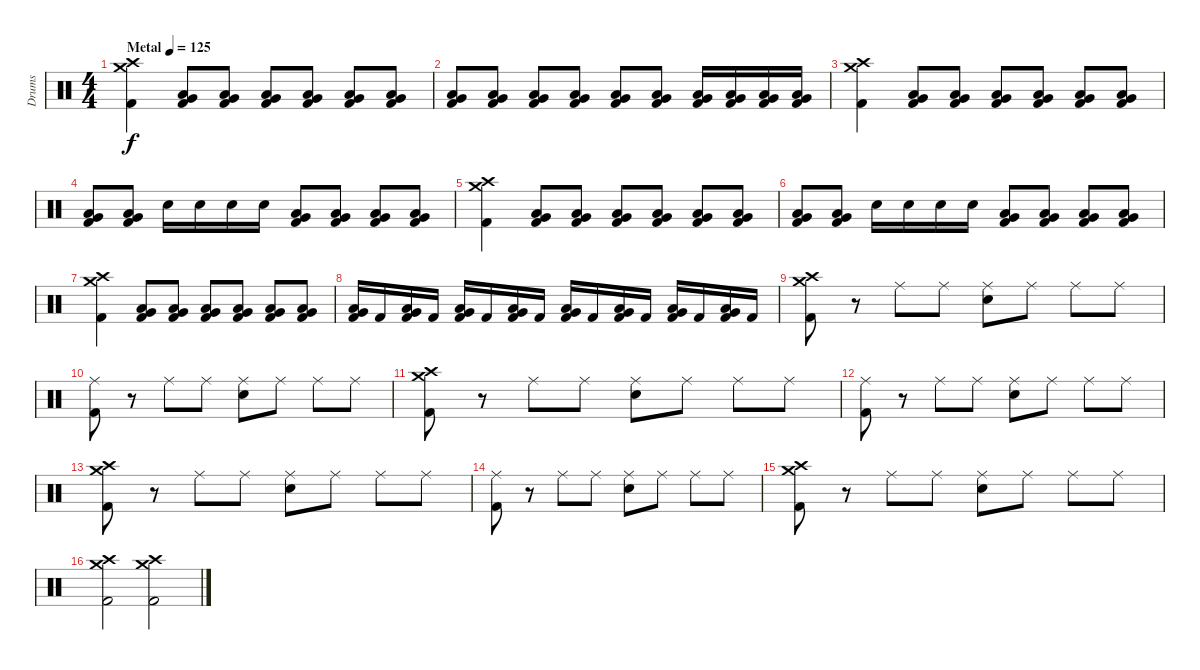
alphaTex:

\track ("Drums" "Drums") {instrument percussion}
\staff {score}
\articulation defaults
\ts (4 4)
\tempo (125 "Metal")
\clef neutral
\ks c
("Crash medium (hit)" "Crash high (hit)" "Kick (hit) 2").4{dy f} ("Very Low Tom (hit)" "Low Floor Tom (hit)" "Kick (hit) 2").8 ("Very Low Tom (hit)" "Low Floor Tom (hit)" "Kick (hit) 2").8 ("Very Low Tom (hit)" "Low Floor Tom (hit)" "Kick (hit) 2").8 ("Very Low Tom (hit)" "Low Floor Tom (hit)" "Kick (hit) 2").8 ("Very Low Tom (hit)" "Low Floor Tom (hit)" "Kick (hit) 2").8 ("Very Low Tom (hit)" "Low Floor Tom (hit)" "Kick (hit) 2").8 |
("Very Low Tom (hit)" "Low Floor Tom (hit)" "Kick (hit) 2").8 ("Very Low Tom (hit)" "Low Floor Tom (hit)" "Kick (hit) 2").8 ("Very Low Tom (hit)" "Low Floor Tom (hit)" "Kick (hit) 2").8 ("Very Low Tom (hit)" "Low Floor Tom (hit)" "Kick (hit) 2").8 ("Very Low Tom (hit)" "Low Floor Tom (hit)" "Kick (hit) 2").8 ("Very Low Tom (hit)" "Low Floor Tom (hit)" "Kick (hit) 2").8 ("Very Low Tom (hit)" "Low Floor Tom (hit)" "Kick (hit) 2").16 ("Very Low Tom (hit)" "Low Floor Tom (hit)" "Kick (hit) 2").16 ("Very Low Tom (hit)" "Low Floor Tom (hit)" "Kick (hit) 2").16 ("Very Low Tom (hit)" "Low Floor Tom (hit)" "Kick (hit) 2").16 |
("Crash medium (hit)" "Crash high (hit)" "Kick (hit) 2").4 ("Very Low Tom (hit)" "Low Floor Tom (hit)" "Kick (hit) 2").8 ("Very Low Tom (hit)" "Low Floor Tom (hit)" "Kick (hit) 2").8 ("Very Low Tom (hit)" "Low Floor Tom (hit)" "Kick (hit) 2").8 ("Very Low Tom (hit)" "Low Floor Tom (hit)" "Kick (hit) 2").8 ("Very Low Tom (hit)" "Low Floor Tom (hit)" "Kick (hit) 2").8 ("Very Low Tom (hit)" "Low Floor Tom (hit)" "Kick (hit) 2").8 |
("Very Low Tom (hit)" "Low Floor Tom (hit)" "Kick (hit) 2").8 ("Very Low Tom (hit)" "Low Floor Tom (hit)" "Kick (hit) 2").8 "Electric Snare (hit)".16 "Electric Snare (hit)".16 "Electric Snare (hit)".16 "Electric Snare (hit)".16 ("Very Low Tom (hit)" "Low Floor Tom (hit)" "Kick (hit) 2").8 ("Very Low Tom (hit)" "Low Floor Tom (hit)" "Kick (hit) 2").8 ("Very Low Tom (hit)" "Low Floor Tom (hit)" "Kick (hit) 2").8 ("Very Low Tom (hit)" "Low Floor Tom (hit)" "Kick (hit) 2").8 |
("Crash medium (hit)" "Crash high (hit)" "Kick (hit) 2").4 ("Very Low Tom (hit)" "Low Floor Tom (hit)" "Kick (hit) 2").8 ("Very Low Tom (hit)" "Low Floor Tom (hit)" "Kick (hit) 2").8 ("Very Low Tom (hit)" "Low Floor Tom (hit)" "Kick (hit) 2").8 ("Very Low Tom (hit)" "Low Floor Tom (hit)" "Kick (hit) 2").8 ("Very Low Tom (hit)" "Low Floor Tom (hit)" "Kick (hit) 2").8 ("Very Low Tom (hit)" "Low Floor Tom (hit)" "Kick (hit) 2").8 |
("Very Low Tom (hit)" "Low Floor Tom (hit)" "Kick (hit) 2").8 ("Very Low Tom (hit)" "Low Floor Tom (hit)" "Kick (hit) 2").8 "Electric Snare (hit)".16 "Electric Snare (hit)".16 "Electric Snare (hit)".16 "Electric Snare (hit)".16 ("Very Low Tom (hit)" "Low Floor Tom (hit)" "Kick (hit) 2").8 ("Very Low Tom (hit)" "Low Floor Tom (hit)" "Kick (hit) 2").8 ("Very Low Tom (hit)" "Low Floor Tom (hit)" "Kick (hit) 2").8 ("Very Low Tom (hit)" "Low Floor Tom (hit)" "Kick (hit) 2").8 |
("Crash medium (hit)" "Crash high (hit)" "Kick (hit) 2").4 ("Very Low Tom (hit)" "Low Floor Tom (hit)" "Kick (hit) 2").8 ("Very Low Tom (hit)" "Low Floor Tom (hit)" "Kick (hit) 2").8 ("Very Low Tom (hit)" "Low Floor Tom (hit)" "Kick (hit) 2").8 ("Very Low Tom (hit)" "Low Floor Tom (hit)" "Kick (hit) 2").8 ("Very Low Tom (hit)" "Low Floor Tom (hit)" "Kick (hit) 2").8 ("Very Low Tom (hit)" "Low Floor Tom (hit)" "Kick (hit) 2").8 |
("Very Low Tom (hit)" "Low Floor Tom (hit)" "Kick (hit) 2").16 "Kick (hit) 2".16 ("Very Low Tom (hit)" "Low Floor Tom (hit)" "Kick (hit) 2").16 "Kick (hit) 2".16 ("Very Low Tom (hit)" "Low Floor Tom (hit)" "Kick (hit) 2").16 "Kick (hit) 2".16 ("Very Low Tom (hit)" "Low Floor Tom (hit)" "Kick (hit) 2").16 "Kick (hit) 2".16 ("Very Low Tom (hit)" "Low Floor Tom (hit)" "Kick (hit) 2").16 "Kick (hit) 2".16 ("Very Low Tom (hit)" "Low Floor Tom (hit)" "Kick (hit) 2").16 "Kick (hit) 2".16 ("Very Low Tom (hit)" "Low Floor Tom (hit)" "Kick (hit) 2").16 "Kick (hit) 2".16 ("Very Low Tom (hit)" "Low Floor Tom (hit)" "Kick (hit) 2").16 "Kick (hit) 2".16 |
("Crash medium (hit)" "Crash high (hit)" "Kick (hit) 2").8 r.8 "Ride (middle)".8 "Ride (middle)".8 ("Ride (middle)" "Electric Snare (hit)").8 "Ride (middle)".8 "Ride (middle)".8 "Ride (middle)".8 |
("Ride (middle)" "Kick (hit) 2").8 r.8 "Ride (middle)".8 "Ride (middle)".8 ("Ride (middle)" "Electric Snare (hit)").8 "Ride (middle)".8 "Ride (middle)".8 "Ride (middle)".8 |
("Crash medium (hit)" "Crash high (hit)" "Kick (hit) 2").8 r.8 "Ride (middle)".8 "Ride (middle)".8 ("Ride (middle)" "Electric Snare (hit)").8 "Ride (middle)".8 "Ride (middle)".8 "Ride (middle)".8 |
("Ride (middle)" "Kick (hit) 2").8 r.8 "Ride (middle)".8 "Ride (middle)".8 ("Ride (middle)" "Electric Snare (hit)").8 "Ride (middle)".8 "Ride (middle)".8 "Ride (middle)".8 |
("Crash medium (hit)" "Crash high (hit)" "Kick (hit) 2").8 r.8 "Ride (middle)".8 "Ride (middle)".8 ("Ride (middle)" "Electric Snare (hit)").8 "Ride (middle)".8 "Ride (middle)".8 "Ride (middle)".8 |
("Ride (middle)" "Kick (hit) 2").8 r.8 "Ride (middle)".8 "Ride (middle)".8 ("Ride (middle)" "Electric Snare (hit)").8 "Ride (middle)".8 "Ride (middle)".8 "Ride (middle)".8 |
("Crash medium (hit)" "Crash high (hit)" "Kick (hit) 2").8 r.8 "Ride (middle)".8 "Ride (middle)".8 ("Ride (middle)" "Electric Snare (hit)").8 "Ride (middle)".8 "Ride (middle)".8 "Ride (middle)".8 |
("Crash medium (hit)" "Crash high (hit)" "Kick (hit) 2").2 ("Crash medium (hit)" "Crash high (hit)" "Kick (hit) 2").2
